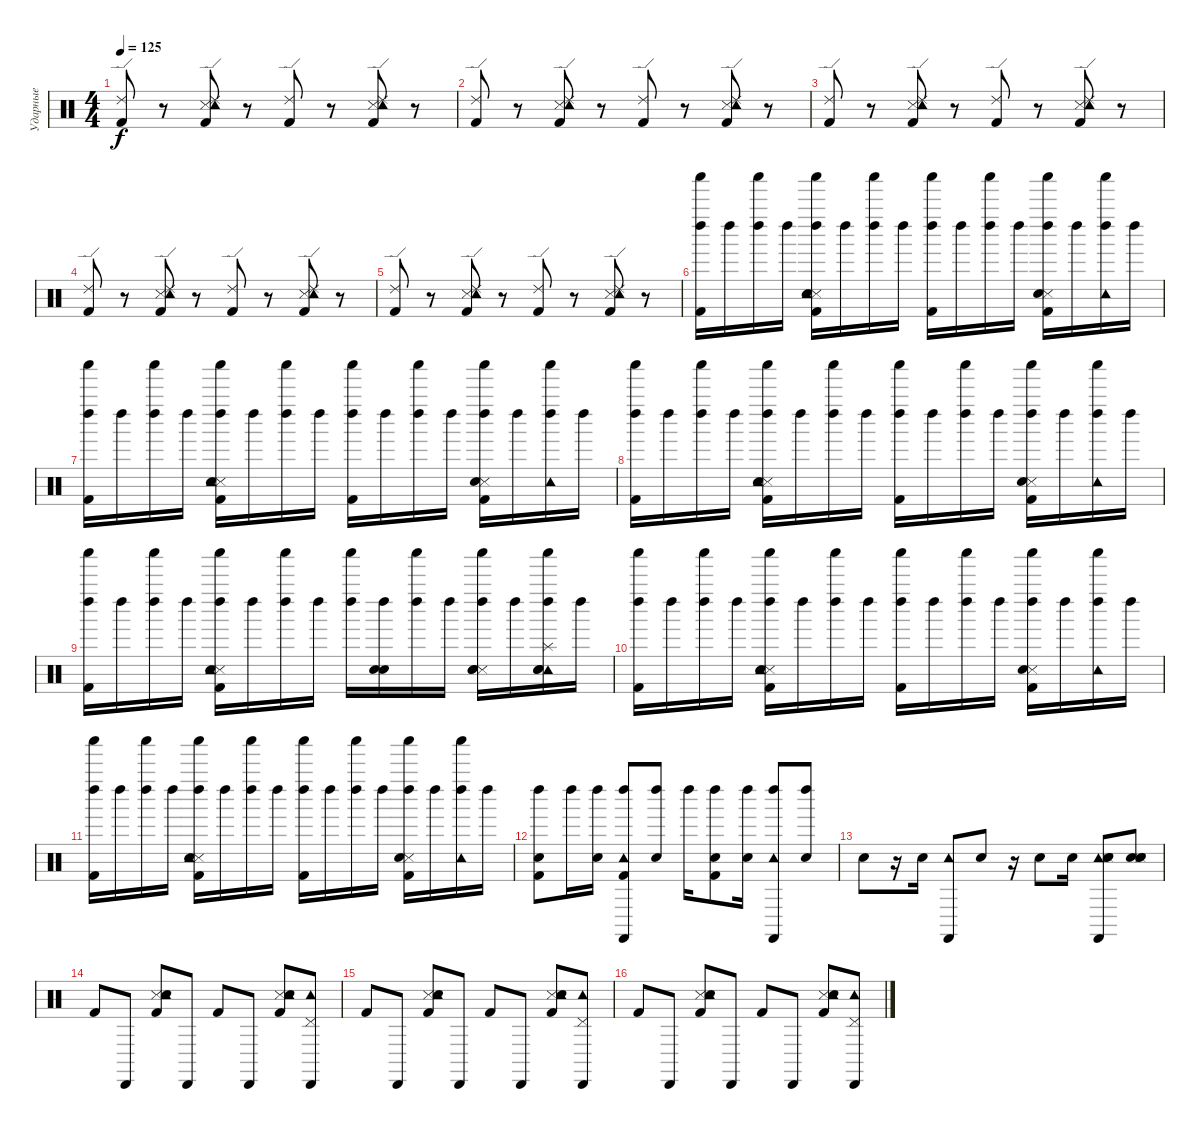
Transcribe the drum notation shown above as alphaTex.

\track ("Ударные" "Ударные") {instrument percussion}
\staff {score}
\articulation defaults
\ts (4 4)
\tempo 125
\clef neutral
\ks c
("Kick (hit) 2" "Ride (edge) 2").8{dy f} r.8 ("Snare (side stick) 3" "Tambourine (hit)" "Kick (hit) 2" "Ride (edge) 2").8 r.8 ("Kick (hit) 2" "Ride (edge) 2").8 r.8 ("Snare (side stick) 3" "Tambourine (hit)" "Kick (hit) 2" "Ride (edge) 2").8 r.8 |
("Kick (hit) 2" "Ride (edge) 2").8 r.8 ("Snare (side stick) 3" "Tambourine (hit)" "Kick (hit) 2" "Ride (edge) 2").8 r.8 ("Kick (hit) 2" "Ride (edge) 2").8 r.8 ("Snare (side stick) 3" "Tambourine (hit)" "Kick (hit) 2" "Ride (edge) 2").8 r.8 |
("Kick (hit) 2" "Ride (edge) 2").8 r.8 ("Snare (side stick) 3" "Tambourine (hit)" "Kick (hit) 2" "Ride (edge) 2").8 r.8 ("Kick (hit) 2" "Ride (edge) 2").8 r.8 ("Snare (side stick) 3" "Tambourine (hit)" "Kick (hit) 2" "Ride (edge) 2").8 r.8 |
("Kick (hit) 2" "Ride (edge) 2").8 r.8 ("Snare (side stick) 3" "Tambourine (hit)" "Kick (hit) 2" "Ride (edge) 2").8 r.8 ("Kick (hit) 2" "Ride (edge) 2").8 r.8 ("Snare (side stick) 3" "Tambourine (hit)" "Kick (hit) 2" "Ride (edge) 2").8 r.8 |
("Kick (hit) 2" "Ride (edge) 2").8 r.8 ("Snare (side stick) 3" "Tambourine (hit)" "Kick (hit) 2" "Ride (edge) 2").8 r.8 ("Kick (hit) 2" "Ride (edge) 2").8 r.8 ("Snare (side stick) 3" "Tambourine (hit)" "Kick (hit) 2" "Ride (edge) 2").8 r.8 |
("Shaker (hit)" "Kick (hit) 2" "Left Maraca (hit)").16 "Left Maraca (hit)".16 ("Shaker (hit)" "Left Maraca (hit)").16 "Left Maraca (hit)".16 ("Shaker (hit)" "Snare (side stick) 3" "Hand Clap (hit)" "Tambourine (hit)" "Kick (hit) 2" "Left Maraca (hit)").16 "Left Maraca (hit)".16 ("Shaker (hit)" "Left Maraca (hit)").16 "Left Maraca (hit)".16 ("Shaker (hit)" "Kick (hit) 2" "Left Maraca (hit)").16 "Left Maraca (hit)".16 ("Shaker (hit)" "Left Maraca (hit)").16 "Left Maraca (hit)".16 ("Shaker (hit)" "Snare (side stick) 3" "Kick (hit) 2" "Hand Clap (hit)" "Left Maraca (hit)").16 "Left Maraca (hit)".16 ("Shaker (hit)" "Tambourine (hit)" "Left Maraca (hit)").16 "Left Maraca (hit)".16 |
("Shaker (hit)" "Kick (hit) 2" "Left Maraca (hit)").16 "Left Maraca (hit)".16 ("Shaker (hit)" "Left Maraca (hit)").16 "Left Maraca (hit)".16 ("Shaker (hit)" "Snare (side stick) 3" "Hand Clap (hit)" "Tambourine (hit)" "Kick (hit) 2" "Left Maraca (hit)").16 "Left Maraca (hit)".16 ("Shaker (hit)" "Left Maraca (hit)").16 "Left Maraca (hit)".16 ("Shaker (hit)" "Kick (hit) 2" "Left Maraca (hit)").16 "Left Maraca (hit)".16 ("Shaker (hit)" "Left Maraca (hit)").16 "Left Maraca (hit)".16 ("Shaker (hit)" "Snare (side stick) 3" "Kick (hit) 2" "Hand Clap (hit)" "Left Maraca (hit)").16 "Left Maraca (hit)".16 ("Shaker (hit)" "Tambourine (hit)" "Left Maraca (hit)").16 "Left Maraca (hit)".16 |
("Shaker (hit)" "Kick (hit) 2" "Left Maraca (hit)").16 "Left Maraca (hit)".16 ("Shaker (hit)" "Left Maraca (hit)").16 "Left Maraca (hit)".16 ("Shaker (hit)" "Snare (side stick) 3" "Hand Clap (hit)" "Tambourine (hit)" "Kick (hit) 2" "Left Maraca (hit)").16 "Left Maraca (hit)".16 ("Shaker (hit)" "Left Maraca (hit)").16 "Left Maraca (hit)".16 ("Shaker (hit)" "Kick (hit) 2" "Left Maraca (hit)").16 "Left Maraca (hit)".16 ("Shaker (hit)" "Left Maraca (hit)").16 "Left Maraca (hit)".16 ("Shaker (hit)" "Snare (side stick) 3" "Kick (hit) 2" "Hand Clap (hit)" "Left Maraca (hit)").16 "Left Maraca (hit)".16 ("Shaker (hit)" "Tambourine (hit)" "Left Maraca (hit)").16 "Left Maraca (hit)".16 |
("Shaker (hit)" "Kick (hit) 2" "Left Maraca (hit)").16 "Left Maraca (hit)".16 ("Shaker (hit)" "Left Maraca (hit)").16 "Left Maraca (hit)".16 ("Shaker (hit)" "Snare (side stick) 3" "Hand Clap (hit)" "Tambourine (hit)" "Kick (hit) 2" "Left Maraca (hit)").16 "Left Maraca (hit)".16 ("Shaker (hit)" "Left Maraca (hit)").16 "Left Maraca (hit)".16 ("Shaker (hit)" "Left Maraca (hit)").16 ("Electric Snare (hit)" "Snare (hit) 2" "Left Maraca (hit)").16 ("Shaker (hit)" "Left Maraca (hit)").16 "Left Maraca (hit)".16 ("Shaker (hit)" "Snare (side stick) 3" "Electric Snare (hit)" "Snare (hit) 2" "Left Maraca (hit)").16 "Left Maraca (hit)".16 ("Shaker (hit)" "Tambourine (hit)" "Electric Snare (hit)" "Snare (hit) 2" "Splash (hit)" "Left Maraca (hit)").16 "Left Maraca (hit)".16 |
("Shaker (hit)" "Kick (hit) 2" "Left Maraca (hit)").16 "Left Maraca (hit)".16 ("Shaker (hit)" "Left Maraca (hit)").16 "Left Maraca (hit)".16 ("Shaker (hit)" "Snare (side stick) 3" "Hand Clap (hit)" "Tambourine (hit)" "Kick (hit) 2" "Left Maraca (hit)").16 "Left Maraca (hit)".16 ("Shaker (hit)" "Left Maraca (hit)").16 "Left Maraca (hit)".16 ("Shaker (hit)" "Kick (hit) 2" "Left Maraca (hit)").16 "Left Maraca (hit)".16 ("Shaker (hit)" "Left Maraca (hit)").16 "Left Maraca (hit)".16 ("Shaker (hit)" "Snare (side stick) 3" "Kick (hit) 2" "Hand Clap (hit)" "Left Maraca (hit)").16 "Left Maraca (hit)".16 ("Shaker (hit)" "Tambourine (hit)" "Left Maraca (hit)").16 "Left Maraca (hit)".16 |
("Shaker (hit)" "Kick (hit) 2" "Left Maraca (hit)").16 "Left Maraca (hit)".16 ("Shaker (hit)" "Left Maraca (hit)").16 "Left Maraca (hit)".16 ("Shaker (hit)" "Snare (side stick) 3" "Hand Clap (hit)" "Tambourine (hit)" "Kick (hit) 2" "Left Maraca (hit)").16 "Left Maraca (hit)".16 ("Shaker (hit)" "Left Maraca (hit)").16 "Left Maraca (hit)".16 ("Shaker (hit)" "Kick (hit) 2" "Left Maraca (hit)").16 "Left Maraca (hit)".16 ("Shaker (hit)" "Left Maraca (hit)").16 "Left Maraca (hit)".16 ("Shaker (hit)" "Snare (side stick) 3" "Kick (hit) 2" "Hand Clap (hit)" "Left Maraca (hit)").16 "Left Maraca (hit)".16 ("Shaker (hit)" "Tambourine (hit)" "Left Maraca (hit)").16 "Left Maraca (hit)".16 |
("Snare (hit) 2" "Left Maraca (hit)" "Kick (hit) 2").8 "Left Maraca (hit)".16 ("Snare (hit) 2" "Left Maraca (hit)").16 ("Castanets (hit)" "Tambourine (hit)" "Left Maraca (hit)" "Kick (hit) 2").8 ("Snare (hit) 2" "Left Maraca (hit)").8 "Left Maraca (hit)".16 ("Snare (hit) 2" "Left Maraca (hit)" "Kick (hit) 2").8 ("Snare (hit) 2" "Left Maraca (hit)").16 ("Castanets (hit)" "Tambourine (hit)" "Left Maraca (hit)").8 ("Snare (hit) 2" "Left Maraca (hit)").8 |
"Snare (hit) 2".8 r.16 "Snare (hit) 2".16 ("Castanets (hit)" "Tambourine (hit)").8 "Snare (hit) 2".8 r.16 "Snare (hit) 2".8 "Snare (hit) 2".16 ("Castanets (hit)" "Tambourine (hit)" "Hand Clap (hit)" "Snare (side stick) 3" "Hand Clap (hit)").8 ("Snare (hit) 2" "Hand Clap (hit)" "Snare (side stick) 3" "Hand Clap (hit)").8 |
"Kick (hit) 2".8 "Cabasa (hit)".8 ("Snare (side stick) 3" "Hand Clap (hit)" "Tambourine (hit)" "Kick (hit) 2").8 "Cabasa (hit)".8 "Kick (hit) 2".8 "Cabasa (hit)".8 ("Snare (side stick) 3" "Hand Clap (hit)" "Tambourine (hit)" "Kick (hit) 2").8 ("Pedal Hi-Hat (hit)" "Tambourine (hit)" "Cabasa (hit)").8 |
"Kick (hit) 2".8 "Cabasa (hit)".8 ("Snare (side stick) 3" "Hand Clap (hit)" "Tambourine (hit)" "Kick (hit) 2").8 "Cabasa (hit)".8 "Kick (hit) 2".8 "Cabasa (hit)".8 ("Snare (side stick) 3" "Hand Clap (hit)" "Tambourine (hit)" "Kick (hit) 2").8 ("Pedal Hi-Hat (hit)" "Tambourine (hit)" "Cabasa (hit)").8 |
"Kick (hit) 2".8 "Cabasa (hit)".8 ("Snare (side stick) 3" "Hand Clap (hit)" "Tambourine (hit)" "Kick (hit) 2").8 "Cabasa (hit)".8 "Kick (hit) 2".8 "Cabasa (hit)".8 ("Snare (side stick) 3" "Hand Clap (hit)" "Tambourine (hit)" "Kick (hit) 2").8 ("Pedal Hi-Hat (hit)" "Tambourine (hit)" "Cabasa (hit)").8
